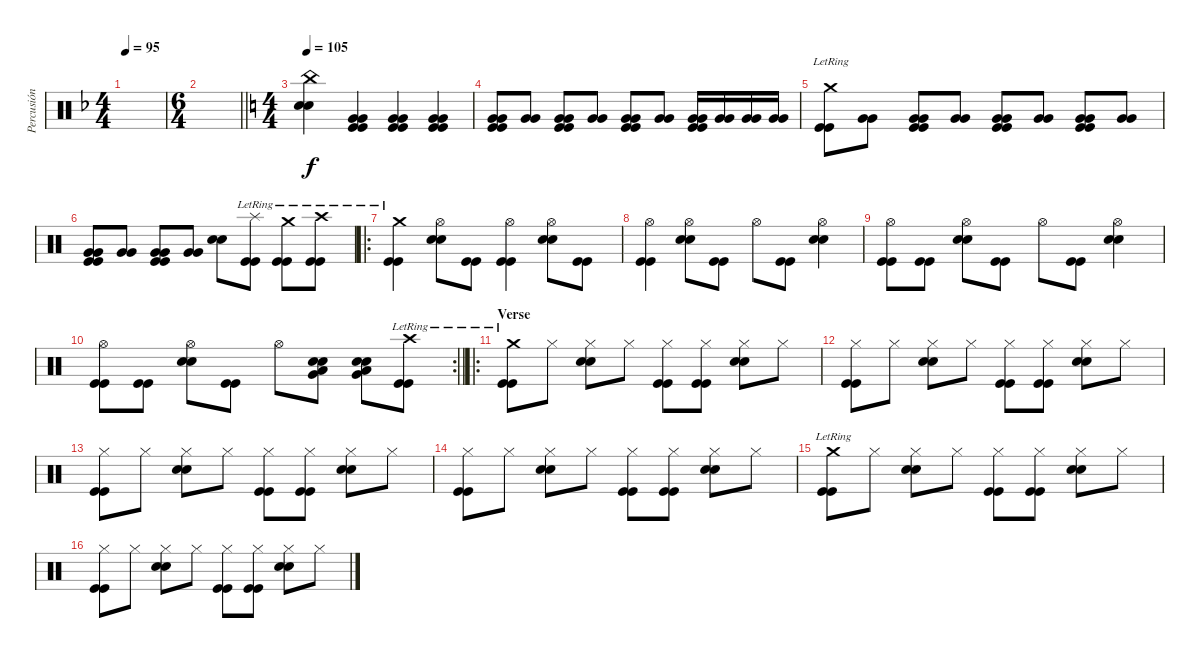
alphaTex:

\track ("Percusión" "Percusión") {instrument percussion}
\staff {score}
\articulation defaults
\ts (4 4)
\tempo 95
\clef neutral
\ks f
|
\ts (6 4)
\barLineRight lightlight
|
\ts (4 4)
\tempo 107
\tempo 105
\ks c
("China (hit)" "Electric Snare (hit)" "Electric Snare (hit)").4 ("Very Low Tom (hit)" "Very Low Tom (hit)" "Kick (hit)" "Kick (hit)").4 ("Very Low Tom (hit)" "Very Low Tom (hit)" "Kick (hit)" "Kick (hit)").4 ("Very Low Tom (hit)" "Very Low Tom (hit)" "Kick (hit)" "Kick (hit)").4 |
("Very Low Tom (hit)" "Very Low Tom (hit)" "Kick (hit)" "Kick (hit)").8 ("Very Low Tom (hit)" "Very Low Tom (hit)").8 ("Very Low Tom (hit)" "Very Low Tom (hit)" "Kick (hit)" "Kick (hit)").8 ("Very Low Tom (hit)" "Very Low Tom (hit)").8 ("Very Low Tom (hit)" "Very Low Tom (hit)" "Kick (hit)" "Kick (hit)").8 ("Very Low Tom (hit)" "Very Low Tom (hit)").8 ("Very Low Tom (hit)" "Very Low Tom (hit)" "Kick (hit)" "Kick (hit)").16 ("Very Low Tom (hit)" "Very Low Tom (hit)").16 ("Very Low Tom (hit)" "Very Low Tom (hit)").16 ("Very Low Tom (hit)" "Very Low Tom (hit)").16 |
("Crash medium (hit)"{lr} "Kick (hit)" "Kick (hit)").8 ("Very Low Tom (hit)" "Very Low Tom (hit)").8 ("Very Low Tom (hit)" "Very Low Tom (hit)" "Kick (hit)" "Kick (hit)").8 ("Very Low Tom (hit)" "Very Low Tom (hit)").8 ("Very Low Tom (hit)" "Very Low Tom (hit)" "Kick (hit)" "Kick (hit)").8 ("Very Low Tom (hit)" "Very Low Tom (hit)").8 ("Very Low Tom (hit)" "Very Low Tom (hit)" "Kick (hit)" "Kick (hit)").8 ("Very Low Tom (hit)" "Very Low Tom (hit)").8 |
("Very Low Tom (hit)" "Very Low Tom (hit)" "Kick (hit)" "Kick (hit)").8 ("Very Low Tom (hit)" "Very Low Tom (hit)").8 ("Very Low Tom (hit)" "Very Low Tom (hit)" "Kick (hit)" "Kick (hit)").8 ("Very Low Tom (hit)" "Very Low Tom (hit)").8 ("Electric Snare (hit)" "Electric Snare (hit)").8 ("Splash (hit)"{lr} "Kick (hit)" "Kick (hit)").8 ("Crash medium (hit)"{lr} "Kick (hit)" "Kick (hit)").8 ("Crash high (hit)"{lr} "Kick (hit)" "Kick (hit)").8 |
\ro
("Crash medium (hit)"{lr} "Kick (hit)" "Kick (hit)").4 ("Hi-Hat (open)" "Electric Snare (hit)" "Electric Snare (hit)").8 ("Kick (hit)" "Kick (hit)").8 ("Hi-Hat (open)" "Kick (hit)" "Kick (hit)").4 ("Hi-Hat (open)" "Electric Snare (hit)" "Electric Snare (hit)").8 ("Kick (hit)" "Kick (hit)").8 |
("Hi-Hat (open)" "Kick (hit)" "Kick (hit)").4 ("Hi-Hat (open)" "Electric Snare (hit)" "Electric Snare (hit)").8 ("Kick (hit)" "Kick (hit)").8 "Hi-Hat (open)".8 ("Kick (hit)" "Kick (hit)").8 ("Hi-Hat (open)" "Electric Snare (hit)" "Electric Snare (hit)").4 |
("Hi-Hat (open)" "Kick (hit)" "Kick (hit)").8 ("Kick (hit)" "Kick (hit)").8 ("Hi-Hat (open)" "Electric Snare (hit)" "Electric Snare (hit)").8 ("Kick (hit)" "Kick (hit)").8 "Hi-Hat (open)".8 ("Kick (hit)" "Kick (hit)").8 ("Hi-Hat (open)" "Electric Snare (hit)" "Electric Snare (hit)").4 |
\rc 2
\barLineRight lightlight
("Hi-Hat (open)" "Kick (hit)" "Kick (hit)").8 ("Kick (hit)" "Kick (hit)").8 ("Hi-Hat (open)" "Electric Snare (hit)" "Electric Snare (hit)").8 ("Kick (hit)" "Kick (hit)").8 "Hi-Hat (open)".8 ("Low Tom (hit)" "Very Low Tom (hit)" "Electric Snare (hit)" "Electric Snare (hit)").8 ("Low Tom (hit)" "Very Low Tom (hit)" "Electric Snare (hit)" "Electric Snare (hit)").8 ("Crash high (hit)"{lr} "Kick (hit)" "Kick (hit)").8 |
\ro
\section ("" "Verse ")
("Crash medium (hit)"{lr} "Kick (hit)" "Kick (hit)").8 "Hi-Hat (closed)".8 ("Hi-Hat (closed)" "Electric Snare (hit)" "Electric Snare (hit)").8 "Hi-Hat (closed)".8 ("Hi-Hat (closed)" "Kick (hit)" "Kick (hit)").8 ("Hi-Hat (closed)" "Kick (hit)" "Kick (hit)").8 ("Hi-Hat (closed)" "Electric Snare (hit)" "Electric Snare (hit)").8 "Hi-Hat (closed)".8 |
("Hi-Hat (closed)" "Kick (hit)" "Kick (hit)").8 "Hi-Hat (closed)".8 ("Hi-Hat (closed)" "Electric Snare (hit)" "Electric Snare (hit)").8 "Hi-Hat (closed)".8 ("Hi-Hat (closed)" "Kick (hit)" "Kick (hit)").8 ("Hi-Hat (closed)" "Kick (hit)" "Kick (hit)").8 ("Hi-Hat (closed)" "Electric Snare (hit)" "Electric Snare (hit)").8 "Hi-Hat (closed)".8 |
("Hi-Hat (closed)" "Kick (hit)" "Kick (hit)").8 "Hi-Hat (closed)".8 ("Hi-Hat (closed)" "Electric Snare (hit)" "Electric Snare (hit)").8 "Hi-Hat (closed)".8 ("Hi-Hat (closed)" "Kick (hit)" "Kick (hit)").8 ("Hi-Hat (closed)" "Kick (hit)" "Kick (hit)").8 ("Hi-Hat (closed)" "Electric Snare (hit)" "Electric Snare (hit)").8 "Hi-Hat (closed)".8 |
("Hi-Hat (closed)" "Kick (hit)" "Kick (hit)").8 "Hi-Hat (closed)".8 ("Hi-Hat (closed)" "Electric Snare (hit)" "Electric Snare (hit)").8 "Hi-Hat (closed)".8 ("Hi-Hat (closed)" "Kick (hit)" "Kick (hit)").8 ("Hi-Hat (closed)" "Kick (hit)" "Kick (hit)").8 ("Hi-Hat (closed)" "Electric Snare (hit)" "Electric Snare (hit)").8 "Hi-Hat (closed)".8 |
("Crash medium (hit)"{lr} "Kick (hit)" "Kick (hit)").8 "Hi-Hat (closed)".8 ("Hi-Hat (closed)" "Electric Snare (hit)" "Electric Snare (hit)").8 "Hi-Hat (closed)".8 ("Hi-Hat (closed)" "Kick (hit)" "Kick (hit)").8 ("Hi-Hat (closed)" "Kick (hit)" "Kick (hit)").8 ("Hi-Hat (closed)" "Electric Snare (hit)" "Electric Snare (hit)").8 "Hi-Hat (closed)".8 |
("Hi-Hat (closed)" "Kick (hit)" "Kick (hit)").8 "Hi-Hat (closed)".8 ("Hi-Hat (closed)" "Electric Snare (hit)" "Electric Snare (hit)").8 "Hi-Hat (closed)".8 ("Hi-Hat (closed)" "Kick (hit)" "Kick (hit)").8 ("Hi-Hat (closed)" "Kick (hit)" "Kick (hit)").8 ("Hi-Hat (closed)" "Electric Snare (hit)" "Electric Snare (hit)").8 "Hi-Hat (closed)".8
